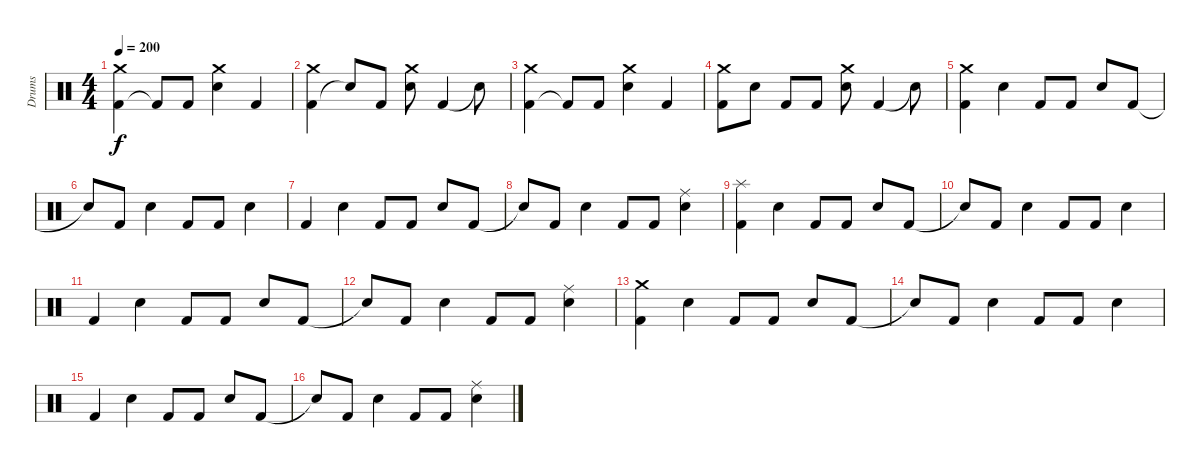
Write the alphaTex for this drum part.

\track ("Drums" "Drums") {instrument percussion}
\staff {score}
\articulation defaults
\ts (4 4)
\tempo 200
\clef neutral
\ks c
("Kick (hit) 2" "Crash medium (hit)").4{dy f} "Kick (hit) 2"{t}.8 "Kick (hit) 2".8 ("Electric Snare (hit)" "Crash medium (hit)").4 "Kick (hit) 2".4 |
("Kick (hit) 2" "Crash medium (hit)").4 "Electric Snare (hit)"{t}.8 "Kick (hit) 2".8 ("Electric Snare (hit)" "Crash medium (hit)").8 "Kick (hit) 2".4 "Snare (hit)"{t}.8 |
("Kick (hit) 2" "Crash medium (hit)").4 "Kick (hit) 2"{t}.8 "Kick (hit) 2".8 ("Electric Snare (hit)" "Crash medium (hit)").4 "Kick (hit) 2".4 |
("Kick (hit) 2" "Crash medium (hit)").8 "Electric Snare (hit)".8 "Kick (hit) 2".8 "Kick (hit) 2".8 ("Electric Snare (hit)" "Crash medium (hit)").8 "Kick (hit) 2".4 "Snare (hit)"{t}.8 |
("Kick (hit) 2" "Crash medium (hit)").4 "Electric Snare (hit)".4 "Kick (hit) 2".8 "Kick (hit) 2".8 "Electric Snare (hit)".8 "Kick (hit) 2".8 |
"Snare (hit)"{t}.8 "Kick (hit) 2".8 "Electric Snare (hit)".4 "Kick (hit) 2".8 "Kick (hit) 2".8 "Electric Snare (hit)".4 |
"Kick (hit) 2".4 "Electric Snare (hit)".4 "Kick (hit) 2".8 "Kick (hit) 2".8 "Electric Snare (hit)".8 "Kick (hit) 2".8 |
"Snare (hit)"{t}.8 "Kick (hit) 2".8 "Electric Snare (hit)".4 "Kick (hit) 2".8 "Kick (hit) 2".8 ("Electric Snare (hit)" "Ride (middle)").4 |
("Kick (hit) 2" "Splash (hit)").4 "Electric Snare (hit)".4 "Kick (hit) 2".8 "Kick (hit) 2".8 "Electric Snare (hit)".8 "Kick (hit) 2".8 |
"Snare (hit)"{t}.8 "Kick (hit) 2".8 "Electric Snare (hit)".4 "Kick (hit) 2".8 "Kick (hit) 2".8 "Electric Snare (hit)".4 |
"Kick (hit) 2".4 "Electric Snare (hit)".4 "Kick (hit) 2".8 "Kick (hit) 2".8 "Electric Snare (hit)".8 "Kick (hit) 2".8 |
"Snare (hit)"{t}.8 "Kick (hit) 2".8 "Electric Snare (hit)".4 "Kick (hit) 2".8 "Kick (hit) 2".8 ("Electric Snare (hit)" "Ride (middle)").4 |
("Kick (hit) 2" "Crash medium (hit)").4 "Electric Snare (hit)".4 "Kick (hit) 2".8 "Kick (hit) 2".8 "Electric Snare (hit)".8 "Kick (hit) 2".8 |
"Snare (hit)"{t}.8 "Kick (hit) 2".8 "Electric Snare (hit)".4 "Kick (hit) 2".8 "Kick (hit) 2".8 "Electric Snare (hit)".4 |
"Kick (hit) 2".4 "Electric Snare (hit)".4 "Kick (hit) 2".8 "Kick (hit) 2".8 "Electric Snare (hit)".8 "Kick (hit) 2".8 |
"Snare (hit)"{t}.8 "Kick (hit) 2".8 "Electric Snare (hit)".4 "Kick (hit) 2".8 "Kick (hit) 2".8 ("Electric Snare (hit)" "Ride (middle)").4
